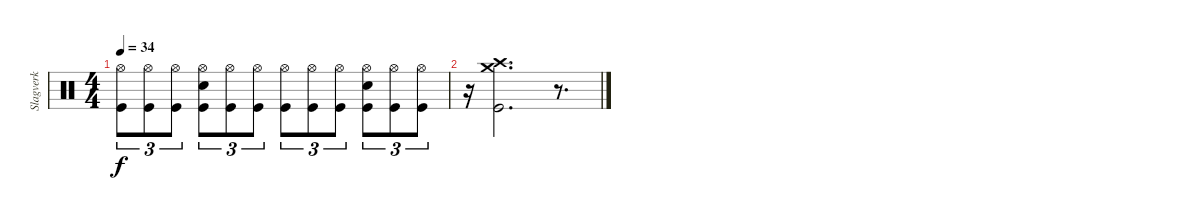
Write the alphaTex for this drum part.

\track ("Slagverk" "Slagverk") {instrument percussion}
\staff {score}
\articulation defaults
\ts (4 4)
\tempo 34
\clef neutral
\ks c
("Hi-Hat (open)" "Kick (hit)").8{tu (3 2) dy f} ("Hi-Hat (open)" "Kick (hit)").8{tu (3 2)} ("Hi-Hat (open)" "Kick (hit)").8{tu (3 2)} ("Snare (hit) 2" "Hi-Hat (open)" "Kick (hit)").8{tu (3 2)} ("Hi-Hat (open)" "Kick (hit)").8{tu (3 2)} ("Hi-Hat (open)" "Kick (hit)").8{tu (3 2)} ("Hi-Hat (open)" "Kick (hit)").8{tu (3 2)} ("Hi-Hat (open)" "Kick (hit)").8{tu (3 2)} ("Hi-Hat (open)" "Kick (hit)").8{tu (3 2)} ("Snare (hit) 2" "Hi-Hat (open)" "Kick (hit)").8{tu (3 2)} ("Hi-Hat (open)" "Kick (hit)").8{tu (3 2)} ("Hi-Hat (open)" "Kick (hit)").8{tu (3 2)} |
r.16 ("Crash medium (hit)" "Crash high (hit)" "Kick (hit)").2{d} r.8{d}
